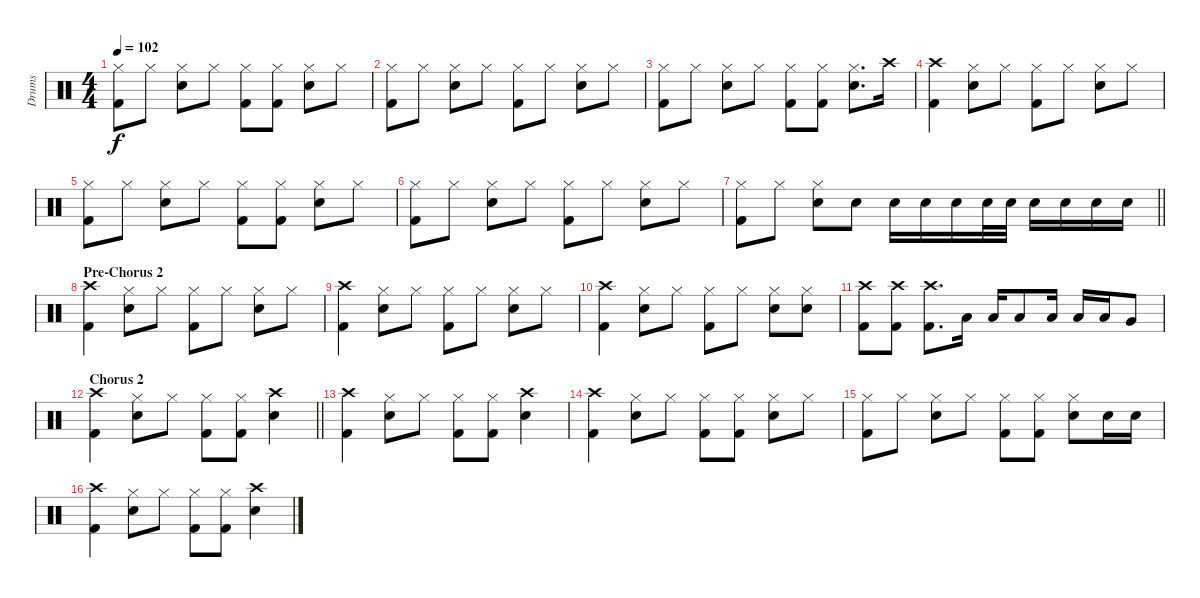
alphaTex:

\track ("Drums" "Drums") {instrument percussion}
\staff {score}
\articulation defaults
\ts (4 4)
\tempo 102
\clef neutral
\ks c
("Kick (hit) 2" "Hi-Hat (closed)").8{dy f} "Hi-Hat (closed)".8 ("Hi-Hat (closed)" "Snare (hit) 2").8 "Hi-Hat (closed)".8 ("Kick (hit) 2" "Hi-Hat (closed)").8 ("Kick (hit) 2" "Hi-Hat (closed)").8 ("Hi-Hat (closed)" "Snare (hit) 2").8 "Hi-Hat (closed)".8 |
("Kick (hit) 2" "Hi-Hat (closed)").8 "Hi-Hat (closed)".8 ("Hi-Hat (closed)" "Snare (hit) 2").8 "Hi-Hat (closed)".8 ("Kick (hit) 2" "Hi-Hat (closed)").8 "Hi-Hat (closed)".8 ("Hi-Hat (closed)" "Snare (hit) 2").8 "Hi-Hat (closed)".8 |
("Kick (hit) 2" "Hi-Hat (closed)").8 "Hi-Hat (closed)".8 ("Hi-Hat (closed)" "Snare (hit) 2").8 "Hi-Hat (closed)".8 ("Kick (hit) 2" "Hi-Hat (closed)").8 ("Kick (hit) 2" "Hi-Hat (closed)").8 ("Hi-Hat (closed)" "Snare (hit) 2").8{d} "Crash high (hit)".16 |
("Kick (hit) 2" "Crash high (hit)").4 ("Hi-Hat (closed)" "Snare (hit) 2").8 "Hi-Hat (closed)".8 ("Hi-Hat (closed)" "Kick (hit) 2").8 "Hi-Hat (closed)".8 ("Hi-Hat (closed)" "Snare (hit) 2").8 "Hi-Hat (closed)".8 |
("Hi-Hat (closed)" "Kick (hit) 2").8 "Hi-Hat (closed)".8 ("Hi-Hat (closed)" "Snare (hit) 2").8 "Hi-Hat (closed)".8 ("Hi-Hat (closed)" "Kick (hit) 2").8 ("Hi-Hat (closed)" "Kick (hit) 2").8 ("Hi-Hat (closed)" "Snare (hit) 2").8 "Hi-Hat (closed)".8 |
("Hi-Hat (closed)" "Kick (hit) 2").8 "Hi-Hat (closed)".8 ("Hi-Hat (closed)" "Snare (hit) 2").8 "Hi-Hat (closed)".8 ("Hi-Hat (closed)" "Kick (hit) 2").8 "Hi-Hat (closed)".8 ("Hi-Hat (closed)" "Snare (hit) 2").8 "Hi-Hat (closed)".8 |
\barLineRight lightlight
("Hi-Hat (closed)" "Kick (hit) 2").8 "Hi-Hat (closed)".8 ("Hi-Hat (closed)" "Snare (hit) 2").8 "Snare (hit) 2".8 "Snare (hit) 2".16 "Snare (hit) 2".16 "Snare (hit) 2".16 "Snare (hit) 2".32 "Snare (hit) 2".32 "Snare (hit) 2".16 "Snare (hit) 2".16 "Snare (hit) 2".16 "Snare (hit) 2".16 |
\section ("" "Pre-Chorus 2")
("Crash high (hit)" "Kick (hit) 2").4 ("Hi-Hat (closed)" "Snare (hit) 2").8 "Hi-Hat (closed)".8 ("Hi-Hat (closed)" "Kick (hit) 2").8 "Hi-Hat (closed)".8 ("Hi-Hat (closed)" "Snare (hit) 2").8 "Hi-Hat (closed)".8 |
("Crash high (hit)" "Kick (hit) 2").4 ("Hi-Hat (closed)" "Snare (hit) 2").8 "Hi-Hat (closed)".8 ("Hi-Hat (closed)" "Kick (hit) 2").8 "Hi-Hat (closed)".8 ("Hi-Hat (closed)" "Snare (hit) 2").8 "Hi-Hat (closed)".8 |
("Crash high (hit)" "Kick (hit) 2").4 ("Hi-Hat (closed)" "Snare (hit) 2").8 "Hi-Hat (closed)".8 ("Hi-Hat (closed)" "Kick (hit) 2").8 "Hi-Hat (closed)".8 ("Hi-Hat (closed)" "Snare (hit) 2").8 ("Hi-Hat (closed)" "Snare (hit) 2").8 |
("Crash high (hit)" "Kick (hit) 2").8 ("Crash high (hit)" "Kick (hit) 2").8 ("Crash high (hit)" "Kick (hit) 2").8{d} "Low Tom (hit)".16 "Low Tom (hit)".16 "Low Tom (hit)".8 "Low Tom (hit)".16 "Low Tom (hit)".16 "Low Tom (hit)".16 "Very Low Tom (hit)".8 |
\section ("" "Chorus 2")
\barLineRight lightlight
("Crash high (hit)" "Kick (hit) 2").4 ("Hi-Hat (closed)" "Snare (hit) 2").8 "Hi-Hat (closed)".8 ("Hi-Hat (closed)" "Kick (hit) 2").8 ("Hi-Hat (closed)" "Kick (hit) 2").8 ("Crash high (hit)" "Snare (hit) 2").4 |
("Crash high (hit)" "Kick (hit) 2").4 ("Hi-Hat (closed)" "Snare (hit) 2").8 "Hi-Hat (closed)".8 ("Hi-Hat (closed)" "Kick (hit) 2").8 ("Hi-Hat (closed)" "Kick (hit) 2").8 ("Crash high (hit)" "Snare (hit) 2").4 |
("Crash high (hit)" "Kick (hit) 2").4 ("Hi-Hat (closed)" "Snare (hit) 2").8 "Hi-Hat (closed)".8 ("Hi-Hat (closed)" "Kick (hit) 2").8 ("Hi-Hat (closed)" "Kick (hit) 2").8 ("Hi-Hat (closed)" "Snare (hit) 2").8 "Hi-Hat (closed)".8 |
("Hi-Hat (closed)" "Kick (hit) 2").8 "Hi-Hat (closed)".8 ("Hi-Hat (closed)" "Snare (hit) 2").8 "Hi-Hat (closed)".8 ("Hi-Hat (closed)" "Kick (hit) 2").8 ("Hi-Hat (closed)" "Kick (hit) 2").8 ("Hi-Hat (closed)" "Snare (hit) 2").8 "Snare (hit) 2".16 "Snare (hit) 2".16 |
("Crash high (hit)" "Kick (hit) 2").4 ("Hi-Hat (closed)" "Snare (hit) 2").8 "Hi-Hat (closed)".8 ("Hi-Hat (closed)" "Kick (hit) 2").8 ("Hi-Hat (closed)" "Kick (hit) 2").8 ("Crash high (hit)" "Snare (hit) 2").4
